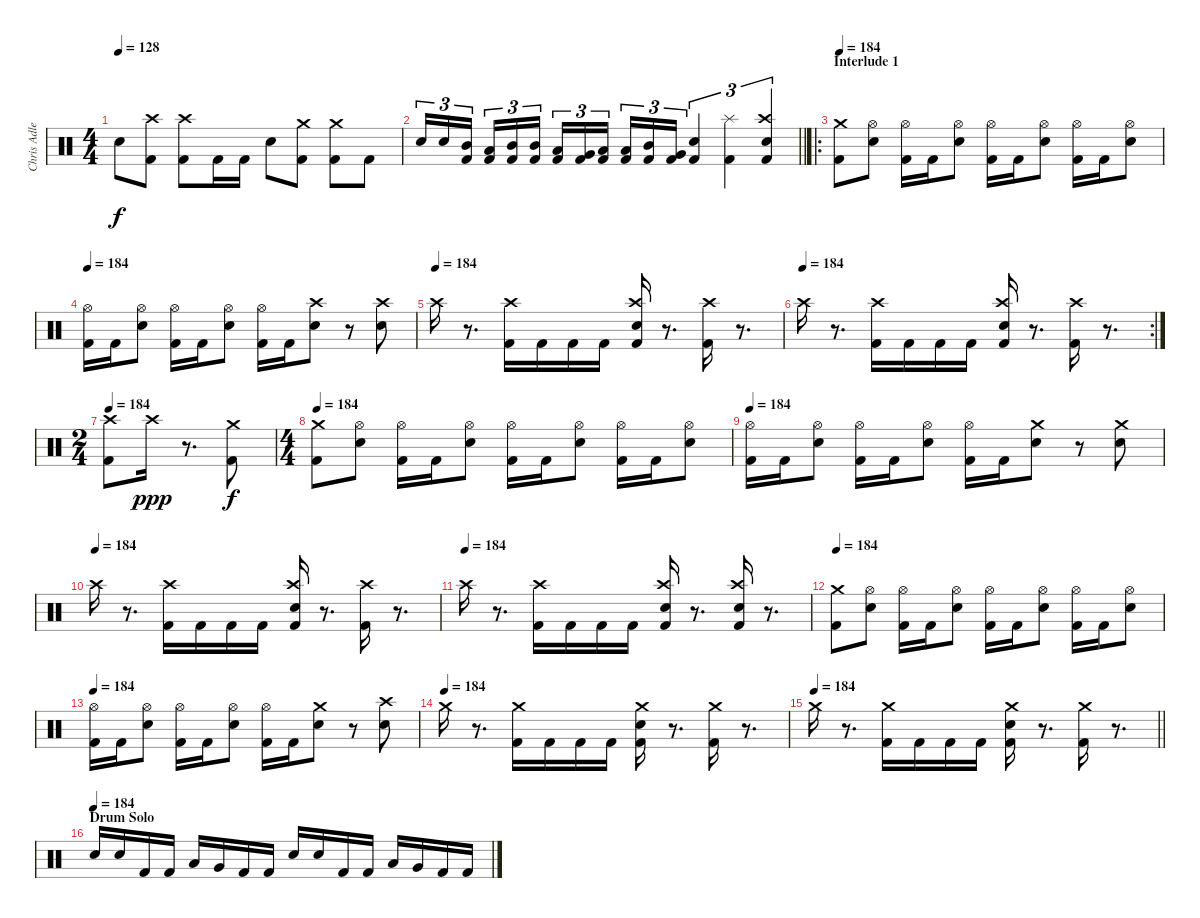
\track ("Chris Adler" "Chris Adle") {instrument percussion}
\staff {score}
\articulation defaults
\ts (4 4)
\tempo 128
\clef neutral
\ks c "Electric Snare (hit)".8{dy f}
("Crash high (hit)" "Kick (hit) 2").8 ("Crash high (hit)" "Kick (hit) 2").8 "Kick (hit) 2".16 "Kick (hit) 2".16 "Electric Snare (hit)".8 ("Crash medium (hit)" "Kick (hit) 2").8 ("Crash medium (hit)" "Kick (hit) 2").8 "Kick (hit) 2".8 |
\barLineRight lightlight "Electric Snare (hit)".16{tu (3 2)} "Electric Snare (hit)".16{tu (3 2)}
("Mid Tom (hit)" "Kick (hit) 2").16{tu (3 2) beam splitsecondary} ("Low Tom (hit)" "Kick (hit) 2").16{tu (3 2)} ("Mid Tom (hit)" "Kick (hit) 2").16{tu (3 2)} ("Mid Tom (hit)" "Kick (hit) 2").16{tu (3 2)} ("Low Tom (hit)" "Kick (hit) 2").16{tu (3 2)} ("Very Low Tom (hit)" "Kick (hit) 2").16{tu (3 2)} ("Low Tom (hit)" "Kick (hit) 2").16{tu (3 2) beam splitsecondary} ("Low Tom (hit)" "Kick (hit) 2").16{tu (3 2)} ("Mid Tom (hit)" "Kick (hit) 2").16{tu (3 2)} ("Very Low Tom (hit)" "Kick (hit) 2").16{tu (3 2)} ("Electric Snare (hit)" "Kick (hit) 2").4{tu (3 2)} ("Splash (hit)" "Kick (hit) 2").4{tu (3 2)} ("Crash high (hit)" "Electric Snare (hit)" "Kick (hit) 2").4{tu (3 2)} |
\ro
\section ("" "Interlude 1")
\tempo 184
("Crash medium (hit)" "Kick (hit) 2").8 ("Hi-Hat (open)" "Electric Snare (hit)").8 ("Hi-Hat (open)" "Kick (hit) 2").16 "Kick (hit) 2".16 ("Hi-Hat (open)" "Electric Snare (hit)").8 ("Hi-Hat (open)" "Kick (hit) 2").16 "Kick (hit) 2".16 ("Hi-Hat (open)" "Electric Snare (hit)").8 ("Hi-Hat (open)" "Kick (hit) 2").16 "Kick (hit) 2".16 ("Hi-Hat (open)" "Electric Snare (hit)").8 |
\tempo 184
("Hi-Hat (open)" "Kick (hit) 2").16 "Kick (hit) 2".16 ("Hi-Hat (open)" "Electric Snare (hit)").8 ("Hi-Hat (open)" "Kick (hit) 2").16 "Kick (hit) 2".16 ("Hi-Hat (open)" "Electric Snare (hit)").8 ("Hi-Hat (open)" "Kick (hit) 2").16 "Kick (hit) 2".16 ("Crash high (hit)" "Electric Snare (hit)").8 r.8 ("Crash high (hit)" "Electric Snare (hit)").8 |
\tempo (184)
"Crash high (hit)".16 r.8{d} ("Crash high (hit)" "Kick (hit) 2").16 "Kick (hit) 2".16 "Kick (hit) 2".16 "Kick (hit) 2".16 ("Crash high (hit)" "Electric Snare (hit)" "Kick (hit) 2").16 r.8{d} ("Crash high (hit)" "Kick (hit) 2").16 r.8{d} |
\rc 2
\tempo (184)
"Crash high (hit)".16 r.8{d} ("Crash high (hit)" "Kick (hit) 2").16 "Kick (hit) 2".16 "Kick (hit) 2".16 "Kick (hit) 2".16 ("Crash high (hit)" "Electric Snare (hit)" "Kick (hit) 2").16 r.8{d} ("Crash high (hit)" "Kick (hit) 2").16 r.8{d} |
\ts (2 4)
\tempo 184
("Crash high (hit)" "Kick (hit) 2").8 "Crash high (hit)".16{dy ppp} r.8{d} ("Crash medium (hit)" "Kick (hit) 2").8{dy f} |
\ts (4 4)
\tempo 184
("Crash medium (hit)" "Kick (hit) 2").8 ("Hi-Hat (open)" "Electric Snare (hit)").8 ("Hi-Hat (open)" "Kick (hit) 2").16 "Kick (hit) 2".16 ("Hi-Hat (open)" "Electric Snare (hit)").8 ("Hi-Hat (open)" "Kick (hit) 2").16 "Kick (hit) 2".16 ("Hi-Hat (open)" "Electric Snare (hit)").8 ("Hi-Hat (open)" "Kick (hit) 2").16 "Kick (hit) 2".16 ("Hi-Hat (open)" "Electric Snare (hit)").8 |
\tempo 184
("Hi-Hat (open)" "Kick (hit) 2").16 "Kick (hit) 2".16 ("Hi-Hat (open)" "Electric Snare (hit)").8 ("Hi-Hat (open)" "Kick (hit) 2").16 "Kick (hit) 2".16 ("Hi-Hat (open)" "Electric Snare (hit)").8 ("Hi-Hat (open)" "Kick (hit) 2").16 "Kick (hit) 2".16 ("Crash medium (hit)" "Electric Snare (hit)").8 r.8 ("Crash medium (hit)" "Electric Snare (hit)").8 |
\tempo (184)
"Crash high (hit)".16 r.8{d} ("Crash high (hit)" "Kick (hit) 2").16 "Kick (hit) 2".16 "Kick (hit) 2".16 "Kick (hit) 2".16 ("Crash high (hit)" "Electric Snare (hit)" "Kick (hit) 2").16 r.8{d} ("Crash high (hit)" "Kick (hit) 2").16 r.8{d} |
\tempo (184)
"Crash high (hit)".16 r.8{d} ("Crash high (hit)" "Kick (hit) 2").16 "Kick (hit) 2".16 "Kick (hit) 2".16 "Kick (hit) 2".16 ("Crash high (hit)" "Electric Snare (hit)" "Kick (hit) 2").16 r.8{d} ("Crash high (hit)" "Electric Snare (hit)" "Kick (hit) 2").16 r.8{d} |
\tempo 184
("Crash medium (hit)" "Kick (hit) 2").8 ("Hi-Hat (open)" "Electric Snare (hit)").8 ("Hi-Hat (open)" "Kick (hit) 2").16 "Kick (hit) 2".16 ("Hi-Hat (open)" "Electric Snare (hit)").8 ("Hi-Hat (open)" "Kick (hit) 2").16 "Kick (hit) 2".16 ("Hi-Hat (open)" "Electric Snare (hit)").8 ("Hi-Hat (open)" "Kick (hit) 2").16 "Kick (hit) 2".16 ("Hi-Hat (open)" "Electric Snare (hit)").8 |
\tempo 184
("Hi-Hat (open)" "Kick (hit) 2").16 "Kick (hit) 2".16 ("Hi-Hat (open)" "Electric Snare (hit)").8 ("Hi-Hat (open)" "Kick (hit) 2").16 "Kick (hit) 2".16 ("Hi-Hat (open)" "Electric Snare (hit)").8 ("Hi-Hat (open)" "Kick (hit) 2").16 "Kick (hit) 2".16 ("Crash medium (hit)" "Electric Snare (hit)").8 r.8 ("Crash high (hit)" "Electric Snare (hit)").8 |
\tempo (184)
"Crash medium (hit)".16 r.8{d} ("Crash medium (hit)" "Kick (hit) 2").16 "Kick (hit) 2".16 "Kick (hit) 2".16 "Kick (hit) 2".16 ("Crash medium (hit)" "Electric Snare (hit)" "Kick (hit) 2").16 r.8{d} ("Crash medium (hit)" "Kick (hit) 2").16 r.8{d} |
\tempo 184
\barLineRight lightlight "Crash medium (hit)".16
r.8{d} ("Crash medium (hit)" "Kick (hit) 2").16 "Kick (hit) 2".16 "Kick (hit) 2".16 "Kick (hit) 2".16 ("Crash medium (hit)" "Electric Snare (hit)" "Kick (hit) 2").16 r.8{d} ("Crash medium (hit)" "Kick (hit) 2").16 r.8{d} |
\section ("" "Drum Solo")
\tempo (184)
"Electric Snare (hit)".16 "Electric Snare (hit)".16 "Kick (hit) 2".16 "Kick (hit) 2".16 "Low Tom (hit)".16 "Very Low Tom (hit)".16 "Kick (hit) 2".16 "Kick (hit) 2".16 "Electric Snare (hit)".16 "Electric Snare (hit)".16 "Kick (hit) 2".16 "Kick (hit) 2".16 "Low Tom (hit)".16 "Very Low Tom (hit)".16 "Kick (hit) 2".16 "Kick (hit) 2".16
